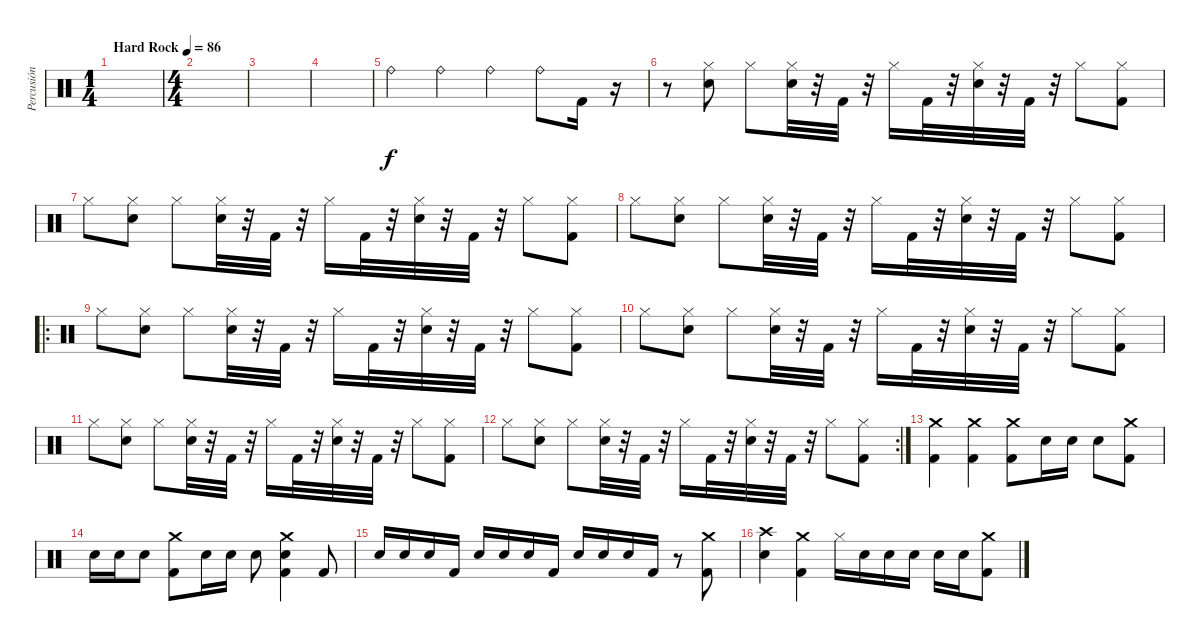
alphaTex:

\track ("Percusión" "Percusión") {instrument percussion}
\staff {score}
\articulation defaults
\ts (1 4)
\tempo (86 "Hard Rock")
\clef neutral
\ks c
|
\ts (4 4)
|
|
|
"Ride (bell)".4 "Ride (bell)".4 "Ride (bell)".4 "Ride (bell)".8 "Kick (hit) 2".16 r.16 |
r.8 ("Hi-Hat (closed)" "Snare (hit) 2").8 "Hi-Hat (closed)".8 ("Hi-Hat (closed)" "Snare (hit) 2").32 r.32 "Kick (hit) 2".32 r.32 "Hi-Hat (closed)".16 "Kick (hit) 2".32 r.32 ("Hi-Hat (closed)" "Snare (hit) 2").32 r.32 "Kick (hit) 2".32 r.32 "Hi-Hat (closed)".8 ("Hi-Hat (closed)" "Kick (hit) 2").8 |
"Hi-Hat (closed)".8 ("Hi-Hat (closed)" "Snare (hit) 2").8 "Hi-Hat (closed)".8 ("Hi-Hat (closed)" "Snare (hit) 2").32 r.32 "Kick (hit) 2".32 r.32 "Hi-Hat (closed)".16 "Kick (hit) 2".32 r.32 ("Hi-Hat (closed)" "Snare (hit) 2").32 r.32 "Kick (hit) 2".32 r.32 "Hi-Hat (closed)".8 ("Hi-Hat (closed)" "Kick (hit) 2").8 |
"Hi-Hat (closed)".8 ("Hi-Hat (closed)" "Snare (hit) 2").8 "Hi-Hat (closed)".8 ("Hi-Hat (closed)" "Snare (hit) 2").32 r.32 "Kick (hit) 2".32 r.32 "Hi-Hat (closed)".16 "Kick (hit) 2".32 r.32 ("Hi-Hat (closed)" "Snare (hit) 2").32 r.32 "Kick (hit) 2".32 r.32 "Hi-Hat (closed)".8 ("Hi-Hat (closed)" "Kick (hit) 2").8 |
\ro "Hi-Hat (closed)".8
("Hi-Hat (closed)" "Snare (hit) 2").8 "Hi-Hat (closed)".8 ("Hi-Hat (closed)" "Snare (hit) 2").32 r.32 "Kick (hit) 2".32 r.32 "Hi-Hat (closed)".16 "Kick (hit) 2".32 r.32 ("Hi-Hat (closed)" "Snare (hit) 2").32 r.32 "Kick (hit) 2".32 r.32 "Hi-Hat (closed)".8 ("Hi-Hat (closed)" "Kick (hit) 2").8 |
"Hi-Hat (closed)".8 ("Hi-Hat (closed)" "Snare (hit) 2").8 "Hi-Hat (closed)".8 ("Hi-Hat (closed)" "Snare (hit) 2").32 r.32 "Kick (hit) 2".32 r.32 "Hi-Hat (closed)".16 "Kick (hit) 2".32 r.32 ("Hi-Hat (closed)" "Snare (hit) 2").32 r.32 "Kick (hit) 2".32 r.32 "Hi-Hat (closed)".8 ("Hi-Hat (closed)" "Kick (hit) 2").8 |
"Hi-Hat (closed)".8 ("Hi-Hat (closed)" "Snare (hit) 2").8 "Hi-Hat (closed)".8 ("Hi-Hat (closed)" "Snare (hit) 2").32 r.32 "Kick (hit) 2".32 r.32 "Hi-Hat (closed)".16 "Kick (hit) 2".32 r.32 ("Hi-Hat (closed)" "Snare (hit) 2").32 r.32 "Kick (hit) 2".32 r.32 "Hi-Hat (closed)".8 ("Hi-Hat (closed)" "Kick (hit) 2").8 |
\rc 2 "Hi-Hat (closed)".8
("Hi-Hat (closed)" "Snare (hit) 2").8 "Hi-Hat (closed)".8 ("Hi-Hat (closed)" "Snare (hit) 2").32 r.32 "Kick (hit) 2".32 r.32 "Hi-Hat (closed)".16 "Kick (hit) 2".32 r.32 ("Hi-Hat (closed)" "Snare (hit) 2").32 r.32 "Kick (hit) 2".32 r.32 "Hi-Hat (closed)".8 ("Hi-Hat (closed)" "Kick (hit) 2").8 |
("Crash medium (hit)" "Kick (hit) 2").4{volume 16} ("Crash medium (hit)" "Kick (hit) 2").4 ("Crash medium (hit)" "Kick (hit) 2").8 "Snare (hit) 2".16 "Snare (hit) 2".16 "Snare (hit) 2".8 ("Crash medium (hit)" "Kick (hit) 2").8 |
"Snare (hit) 2".16 "Snare (hit) 2".16 "Snare (hit) 2".8 ("Crash medium (hit)" "Kick (hit) 2").8 "Snare (hit) 2".16 "Snare (hit) 2".16 "Snare (hit) 2".8 ("Crash medium (hit)" "Snare (hit) 2" "Kick (hit) 2").4 "Kick (hit) 2".8 |
"Snare (hit) 2".16 "Snare (hit) 2".16 "Snare (hit) 2".16 "Kick (hit) 2".16 "Snare (hit) 2".16 "Snare (hit) 2".16 "Snare (hit) 2".16 "Kick (hit) 2".16 "Snare (hit) 2".16 "Snare (hit) 2".16 "Snare (hit) 2".16 "Kick (hit) 2".16 r.8 ("Crash medium (hit)" "Kick (hit) 2").8 |
("Crash high (hit)" "Snare (hit) 2").4 ("Crash medium (hit)" "Kick (hit) 2").4 "Hi-Hat (closed)".16 "Snare (hit) 2".16 "Snare (hit) 2".16 "Snare (hit) 2".16 "Snare (hit) 2".16 "Snare (hit) 2".16 ("Crash medium (hit)" "Kick (hit) 2").8
